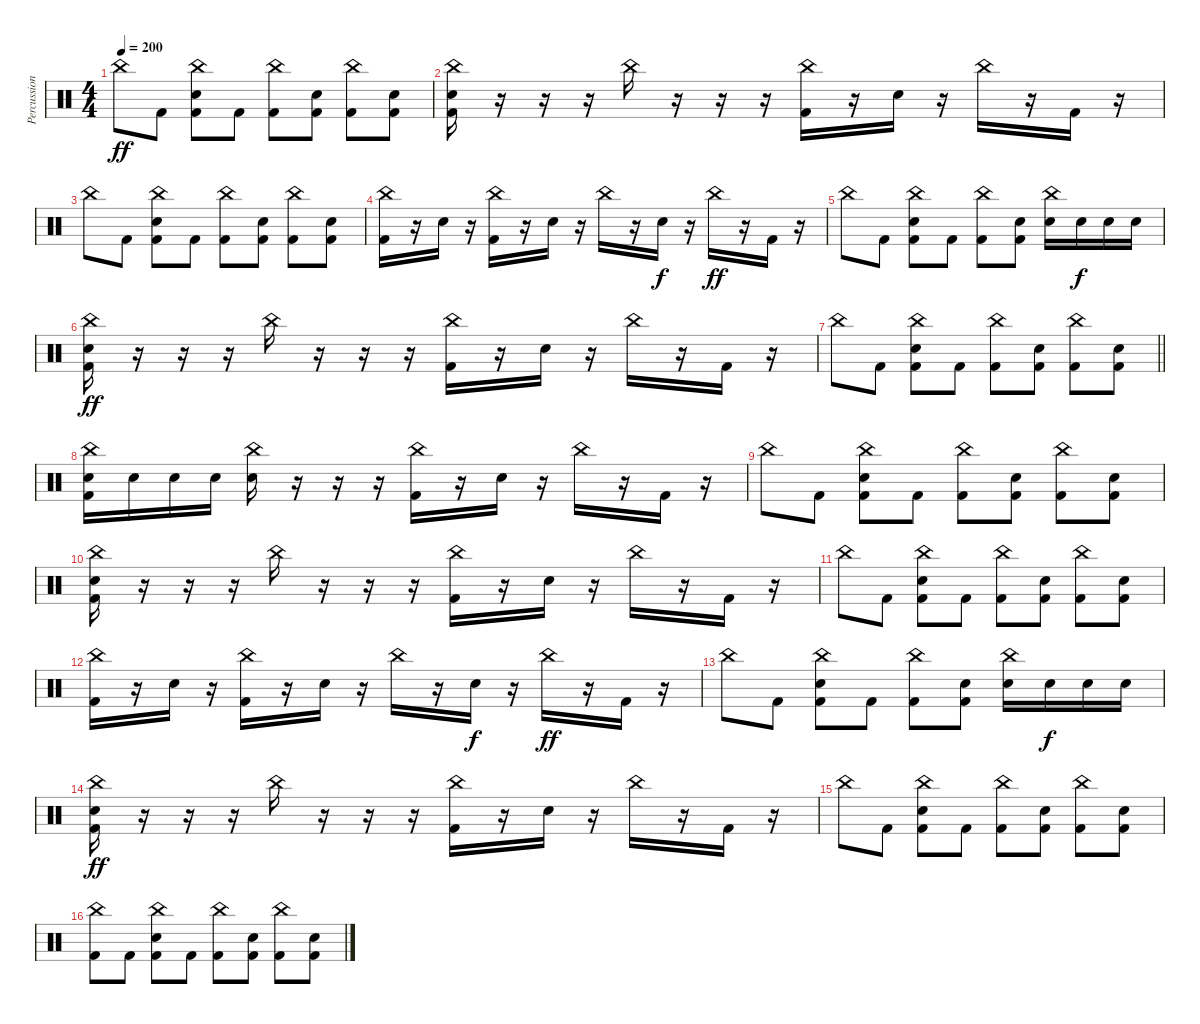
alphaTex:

\track ("Percussion" "Percussion") {instrument percussion bank 255}
\staff {score}
\articulation defaults
\ts (4 4)
\tempo 200
\clef neutral
\ks c "China (hit)".8{dy ff} "Kick (hit) 2".8
("China (hit)" "Electric Snare (hit)" "Kick (hit) 2").8 "Kick (hit) 2".8 ("China (hit)" "Kick (hit) 2").8 ("Electric Snare (hit)" "Kick (hit) 2").8 ("China (hit)" "Kick (hit) 2").8 ("Electric Snare (hit)" "Kick (hit) 2").8 |
("China (hit)" "Kick (hit) 2" "Electric Snare (hit)").16 r.16 r.16 r.16 "China (hit)".16 r.16 r.16 r.16 ("China (hit)" "Kick (hit) 2").16 r.16 "Electric Snare (hit)".16 r.16 "China (hit)".16 r.16 "Kick (hit) 2".16 r.16 |
"China (hit)".8 "Kick (hit) 2".8 ("China (hit)" "Electric Snare (hit)" "Kick (hit) 2").8 "Kick (hit) 2".8 ("China (hit)" "Kick (hit) 2").8 ("Electric Snare (hit)" "Kick (hit) 2").8 ("China (hit)" "Kick (hit) 2").8 ("Electric Snare (hit)" "Kick (hit) 2").8 |
("China (hit)" "Kick (hit) 2").16 r.16 "Electric Snare (hit)".16 r.16 ("China (hit)" "Kick (hit) 2").16 r.16 "Electric Snare (hit)".16 r.16 "China (hit)".16 r.16 "Electric Snare (hit)".16{dy f} r.16 "China (hit)".16{dy ff} r.16 "Kick (hit) 2".16 r.16 |
"China (hit)".8 "Kick (hit) 2".8 ("China (hit)" "Electric Snare (hit)" "Kick (hit) 2").8 "Kick (hit) 2".8 ("China (hit)" "Kick (hit) 2").8 ("Electric Snare (hit)" "Kick (hit) 2").8 ("China (hit)" "Electric Snare (hit)").16 "Electric Snare (hit)".16{dy f} "Electric Snare (hit)".16 "Electric Snare (hit)".16 |
("China (hit)" "Kick (hit) 2" "Electric Snare (hit)").16{dy ff} r.16 r.16 r.16 "China (hit)".16 r.16 r.16 r.16 ("China (hit)" "Kick (hit) 2").16 r.16 "Electric Snare (hit)".16 r.16 "China (hit)".16 r.16 "Kick (hit) 2".16 r.16 |
\barLineRight lightlight "China (hit)".8 "Kick (hit) 2".8
("China (hit)" "Electric Snare (hit)" "Kick (hit) 2").8 "Kick (hit) 2".8 ("China (hit)" "Kick (hit) 2").8 ("Electric Snare (hit)" "Kick (hit) 2").8 ("China (hit)" "Kick (hit) 2").8 ("Electric Snare (hit)" "Kick (hit) 2").8 |
\section ("" "")
("China (hit)" "Kick (hit) 2" "Electric Snare (hit)").16 "Electric Snare (hit)".16 "Electric Snare (hit)".16 "Electric Snare (hit)".16 ("China (hit)" "Electric Snare (hit)").16 r.16 r.16 r.16 ("China (hit)" "Kick (hit) 2").16 r.16 "Electric Snare (hit)".16 r.16 "China (hit)".16 r.16 "Kick (hit) 2".16 r.16 |
"China (hit)".8 "Kick (hit) 2".8 ("China (hit)" "Electric Snare (hit)" "Kick (hit) 2").8 "Kick (hit) 2".8 ("China (hit)" "Kick (hit) 2").8 ("Electric Snare (hit)" "Kick (hit) 2").8 ("China (hit)" "Kick (hit) 2").8 ("Electric Snare (hit)" "Kick (hit) 2").8 |
("China (hit)" "Kick (hit) 2" "Electric Snare (hit)").16 r.16 r.16 r.16 "China (hit)".16 r.16 r.16 r.16 ("China (hit)" "Kick (hit) 2").16 r.16 "Electric Snare (hit)".16 r.16 "China (hit)".16 r.16 "Kick (hit) 2".16 r.16 |
"China (hit)".8 "Kick (hit) 2".8 ("China (hit)" "Electric Snare (hit)" "Kick (hit) 2").8 "Kick (hit) 2".8 ("China (hit)" "Kick (hit) 2").8 ("Electric Snare (hit)" "Kick (hit) 2").8 ("China (hit)" "Kick (hit) 2").8 ("Electric Snare (hit)" "Kick (hit) 2").8 |
("China (hit)" "Kick (hit) 2").16 r.16 "Electric Snare (hit)".16 r.16 ("China (hit)" "Kick (hit) 2").16 r.16 "Electric Snare (hit)".16 r.16 "China (hit)".16 r.16 "Electric Snare (hit)".16{dy f} r.16 "China (hit)".16{dy ff} r.16 "Kick (hit) 2".16 r.16 |
"China (hit)".8 "Kick (hit) 2".8 ("China (hit)" "Electric Snare (hit)" "Kick (hit) 2").8 "Kick (hit) 2".8 ("China (hit)" "Kick (hit) 2").8 ("Electric Snare (hit)" "Kick (hit) 2").8 ("China (hit)" "Electric Snare (hit)").16 "Electric Snare (hit)".16{dy f} "Electric Snare (hit)".16 "Electric Snare (hit)".16 |
("China (hit)" "Kick (hit) 2" "Electric Snare (hit)").16{dy ff} r.16 r.16 r.16 "China (hit)".16 r.16 r.16 r.16 ("China (hit)" "Kick (hit) 2").16 r.16 "Electric Snare (hit)".16 r.16 "China (hit)".16 r.16 "Kick (hit) 2".16 r.16 |
"China (hit)".8 "Kick (hit) 2".8 ("China (hit)" "Electric Snare (hit)" "Kick (hit) 2").8 "Kick (hit) 2".8 ("China (hit)" "Kick (hit) 2").8 ("Electric Snare (hit)" "Kick (hit) 2").8 ("China (hit)" "Kick (hit) 2").8 ("Electric Snare (hit)" "Kick (hit) 2").8 |
("China (hit)" "Kick (hit) 2").8 "Kick (hit) 2".8 ("China (hit)" "Electric Snare (hit)" "Kick (hit) 2").8 "Kick (hit) 2".8 ("China (hit)" "Kick (hit) 2").8 ("Electric Snare (hit)" "Kick (hit) 2").8 ("China (hit)" "Kick (hit) 2").8 ("Electric Snare (hit)" "Kick (hit) 2").8
